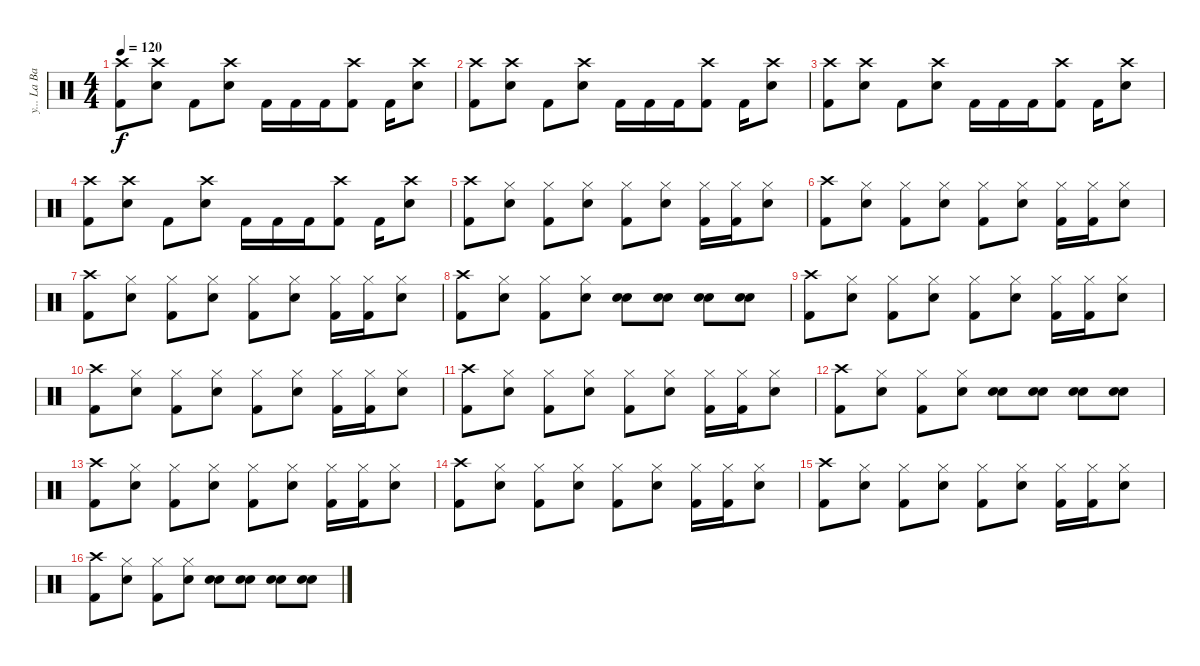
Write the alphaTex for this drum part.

\track ("y... La Bataka" "y... La Ba") {instrument percussion}
\staff {score}
\articulation defaults
\ts (4 4)
\tempo 120
\clef neutral
\ks c
("Crash high (hit)" "Kick (hit) 2").8{dy f} ("Crash high (hit)" "Snare (hit) 2").8 "Kick (hit) 2".8 ("Crash high (hit)" "Snare (hit) 2").8 "Kick (hit) 2".16 "Kick (hit) 2".16 "Kick (hit) 2".16 ("Crash high (hit)" "Kick (hit) 2").8 "Kick (hit) 2".16 ("Crash high (hit)" "Snare (hit) 2").8 |
("Crash high (hit)" "Kick (hit) 2").8 ("Crash high (hit)" "Snare (hit) 2").8 "Kick (hit) 2".8 ("Crash high (hit)" "Snare (hit) 2").8 "Kick (hit) 2".16 "Kick (hit) 2".16 "Kick (hit) 2".16 ("Crash high (hit)" "Kick (hit) 2").8 "Kick (hit) 2".16 ("Crash high (hit)" "Snare (hit) 2").8 |
("Crash high (hit)" "Kick (hit) 2").8 ("Crash high (hit)" "Snare (hit) 2").8 "Kick (hit) 2".8 ("Crash high (hit)" "Snare (hit) 2").8 "Kick (hit) 2".16 "Kick (hit) 2".16 "Kick (hit) 2".16 ("Crash high (hit)" "Kick (hit) 2").8 "Kick (hit) 2".16 ("Crash high (hit)" "Snare (hit) 2").8 |
("Crash high (hit)" "Kick (hit) 2").8 ("Crash high (hit)" "Snare (hit) 2").8 "Kick (hit) 2".8 ("Crash high (hit)" "Snare (hit) 2").8 "Kick (hit) 2".16 "Kick (hit) 2".16 "Kick (hit) 2".16 ("Crash high (hit)" "Kick (hit) 2").8 "Kick (hit) 2".16 ("Crash high (hit)" "Snare (hit) 2").8 |
("Crash high (hit)" "Kick (hit) 2").8 ("Hi-Hat (closed)" "Snare (hit) 2").8 ("Hi-Hat (closed)" "Kick (hit) 2").8 ("Hi-Hat (closed)" "Snare (hit) 2").8 ("Hi-Hat (closed)" "Kick (hit) 2").8 ("Hi-Hat (closed)" "Snare (hit) 2").8 ("Hi-Hat (closed)" "Kick (hit) 2").16 ("Hi-Hat (closed)" "Kick (hit) 2").16 ("Hi-Hat (closed)" "Snare (hit) 2").8 |
("Crash high (hit)" "Kick (hit) 2").8 ("Hi-Hat (closed)" "Snare (hit) 2").8 ("Hi-Hat (closed)" "Kick (hit) 2").8 ("Hi-Hat (closed)" "Snare (hit) 2").8 ("Hi-Hat (closed)" "Kick (hit) 2").8 ("Hi-Hat (closed)" "Snare (hit) 2").8 ("Hi-Hat (closed)" "Kick (hit) 2").16 ("Hi-Hat (closed)" "Kick (hit) 2").16 ("Hi-Hat (closed)" "Snare (hit) 2").8 |
("Crash high (hit)" "Kick (hit) 2").8 ("Hi-Hat (closed)" "Snare (hit) 2").8 ("Hi-Hat (closed)" "Kick (hit) 2").8 ("Hi-Hat (closed)" "Snare (hit) 2").8 ("Hi-Hat (closed)" "Kick (hit) 2").8 ("Hi-Hat (closed)" "Snare (hit) 2").8 ("Hi-Hat (closed)" "Kick (hit) 2").16 ("Hi-Hat (closed)" "Kick (hit) 2").16 ("Hi-Hat (closed)" "Snare (hit) 2").8 |
("Crash high (hit)" "Kick (hit) 2").8 ("Hi-Hat (closed)" "Snare (hit) 2").8 ("Hi-Hat (closed)" "Kick (hit) 2").8 ("Hi-Hat (closed)" "Snare (hit) 2").8 ("Snare (hit) 2" "Snare (hit) 2").8 ("Snare (hit) 2" "Snare (hit) 2").8 ("Snare (hit) 2" "Snare (hit) 2").8 ("Snare (hit) 2" "Snare (hit) 2").8 |
("Crash high (hit)" "Kick (hit) 2").8 ("Hi-Hat (closed)" "Snare (hit) 2").8 ("Hi-Hat (closed)" "Kick (hit) 2").8 ("Hi-Hat (closed)" "Snare (hit) 2").8 ("Hi-Hat (closed)" "Kick (hit) 2").8 ("Hi-Hat (closed)" "Snare (hit) 2").8 ("Hi-Hat (closed)" "Kick (hit) 2").16 ("Hi-Hat (closed)" "Kick (hit) 2").16 ("Hi-Hat (closed)" "Snare (hit) 2").8 |
("Crash high (hit)" "Kick (hit) 2").8 ("Hi-Hat (closed)" "Snare (hit) 2").8 ("Hi-Hat (closed)" "Kick (hit) 2").8 ("Hi-Hat (closed)" "Snare (hit) 2").8 ("Hi-Hat (closed)" "Kick (hit) 2").8 ("Hi-Hat (closed)" "Snare (hit) 2").8 ("Hi-Hat (closed)" "Kick (hit) 2").16 ("Hi-Hat (closed)" "Kick (hit) 2").16 ("Hi-Hat (closed)" "Snare (hit) 2").8 |
("Crash high (hit)" "Kick (hit) 2").8 ("Hi-Hat (closed)" "Snare (hit) 2").8 ("Hi-Hat (closed)" "Kick (hit) 2").8 ("Hi-Hat (closed)" "Snare (hit) 2").8 ("Hi-Hat (closed)" "Kick (hit) 2").8 ("Hi-Hat (closed)" "Snare (hit) 2").8 ("Hi-Hat (closed)" "Kick (hit) 2").16 ("Hi-Hat (closed)" "Kick (hit) 2").16 ("Hi-Hat (closed)" "Snare (hit) 2").8 |
("Crash high (hit)" "Kick (hit) 2").8 ("Hi-Hat (closed)" "Snare (hit) 2").8 ("Hi-Hat (closed)" "Kick (hit) 2").8 ("Hi-Hat (closed)" "Snare (hit) 2").8 ("Snare (hit) 2" "Snare (hit) 2").8 ("Snare (hit) 2" "Snare (hit) 2").8 ("Snare (hit) 2" "Snare (hit) 2").8 ("Snare (hit) 2" "Snare (hit) 2").8 |
("Crash high (hit)" "Kick (hit) 2").8 ("Hi-Hat (closed)" "Snare (hit) 2").8 ("Hi-Hat (closed)" "Kick (hit) 2").8 ("Hi-Hat (closed)" "Snare (hit) 2").8 ("Hi-Hat (closed)" "Kick (hit) 2").8 ("Hi-Hat (closed)" "Snare (hit) 2").8 ("Hi-Hat (closed)" "Kick (hit) 2").16 ("Hi-Hat (closed)" "Kick (hit) 2").16 ("Hi-Hat (closed)" "Snare (hit) 2").8 |
("Crash high (hit)" "Kick (hit) 2").8 ("Hi-Hat (closed)" "Snare (hit) 2").8 ("Hi-Hat (closed)" "Kick (hit) 2").8 ("Hi-Hat (closed)" "Snare (hit) 2").8 ("Hi-Hat (closed)" "Kick (hit) 2").8 ("Hi-Hat (closed)" "Snare (hit) 2").8 ("Hi-Hat (closed)" "Kick (hit) 2").16 ("Hi-Hat (closed)" "Kick (hit) 2").16 ("Hi-Hat (closed)" "Snare (hit) 2").8 |
("Crash high (hit)" "Kick (hit) 2").8 ("Hi-Hat (closed)" "Snare (hit) 2").8 ("Hi-Hat (closed)" "Kick (hit) 2").8 ("Hi-Hat (closed)" "Snare (hit) 2").8 ("Hi-Hat (closed)" "Kick (hit) 2").8 ("Hi-Hat (closed)" "Snare (hit) 2").8 ("Hi-Hat (closed)" "Kick (hit) 2").16 ("Hi-Hat (closed)" "Kick (hit) 2").16 ("Hi-Hat (closed)" "Snare (hit) 2").8 |
("Crash high (hit)" "Kick (hit) 2").8 ("Hi-Hat (closed)" "Snare (hit) 2").8 ("Hi-Hat (closed)" "Kick (hit) 2").8 ("Hi-Hat (closed)" "Snare (hit) 2").8 ("Snare (hit) 2" "Snare (hit) 2").8 ("Snare (hit) 2" "Snare (hit) 2").8 ("Snare (hit) 2" "Snare (hit) 2").8 ("Snare (hit) 2" "Snare (hit) 2").8
